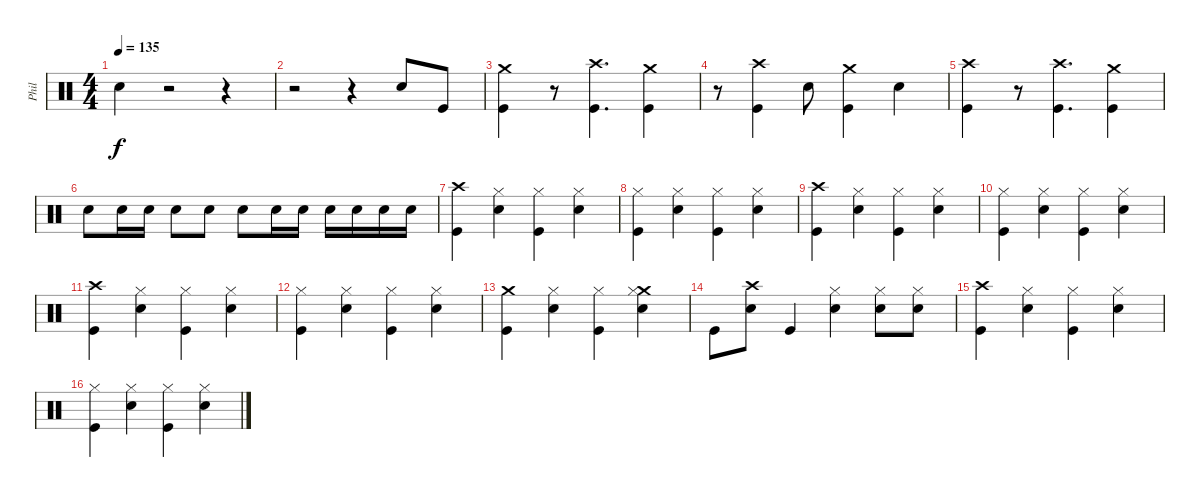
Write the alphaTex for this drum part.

\track ("Phil" "Phil") {instrument percussion}
\staff {score}
\articulation defaults
\ts (4 4)
\tempo 135
\clef neutral
\ks c "Snare (hit) 2".4{dy f}
r.2 r.4 |
r.2 r.4 "Snare (hit) 2".8 "Kick (hit)".8 |
("Crash medium (hit)" "Kick (hit)").4 r.8 ("Crash high (hit)" "Kick (hit)").4{d} ("Crash medium (hit)" "Kick (hit)").4 |
r.8 ("Kick (hit)" "Crash high (hit)").4 "Snare (hit) 2".8 ("Crash medium (hit)" "Kick (hit)").4 "Snare (hit) 2".4 |
("Kick (hit)" "Crash high (hit)").4 r.8 ("Crash high (hit)" "Kick (hit)").4{d} ("Crash medium (hit)" "Kick (hit)").4 |
"Snare (hit) 2".8 "Snare (hit) 2".16 "Snare (hit) 2".16 "Snare (hit) 2".8 "Snare (hit) 2".8 "Snare (hit) 2".8 "Snare (hit) 2".16 "Snare (hit) 2".16 "Snare (hit) 2".16 "Snare (hit) 2".16 "Snare (hit) 2".16 "Snare (hit) 2".16 |
("Kick (hit)" "Crash high (hit)").4 ("Hi-Hat (closed)" "Snare (hit) 2").4 ("Hi-Hat (closed)" "Kick (hit)").4 ("Hi-Hat (closed)" "Snare (hit) 2").4 |
("Kick (hit)" "Hi-Hat (closed)").4 ("Snare (hit) 2" "Hi-Hat (closed)").4 ("Kick (hit)" "Hi-Hat (closed)").4 ("Snare (hit) 2" "Hi-Hat (closed)").4 |
("Kick (hit)" "Crash high (hit)").4 ("Snare (hit) 2" "Hi-Hat (closed)").4 ("Kick (hit)" "Hi-Hat (closed)").4 ("Snare (hit) 2" "Hi-Hat (closed)").4 |
("Kick (hit)" "Hi-Hat (closed)").4 ("Snare (hit) 2" "Hi-Hat (closed)").4 ("Kick (hit)" "Hi-Hat (closed)").4 ("Snare (hit) 2" "Hi-Hat (closed)").4 |
("Kick (hit)" "Crash high (hit)").4 ("Snare (hit) 2" "Hi-Hat (closed)").4 ("Kick (hit)" "Hi-Hat (closed)").4 ("Snare (hit) 2" "Hi-Hat (closed)").4 |
("Kick (hit)" "Hi-Hat (closed)").4 ("Snare (hit) 2" "Hi-Hat (closed)").4 ("Kick (hit)" "Hi-Hat (closed)").4 ("Snare (hit) 2" "Hi-Hat (closed)").4 |
("Crash medium (hit)" "Kick (hit)").4 ("Hi-Hat (closed)" "Snare (hit) 2").4 ("Kick (hit)" "Hi-Hat (closed)").4 ("Crash medium (hit)" "Snare (hit) 2" "Hi-Hat (closed)").4 |
"Kick (hit)".8 ("Snare (hit) 2" "Crash high (hit)").8 "Kick (hit)".4 ("Snare (hit) 2" "Hi-Hat (closed)").4 ("Snare (hit) 2" "Hi-Hat (closed)").8 ("Snare (hit) 2" "Hi-Hat (closed)").8 |
("Crash high (hit)" "Kick (hit)").4 ("Snare (hit) 2" "Hi-Hat (closed)").4 ("Kick (hit)" "Hi-Hat (closed)").4 ("Snare (hit) 2" "Hi-Hat (closed)").4 |
("Hi-Hat (closed)" "Kick (hit)").4 ("Snare (hit) 2" "Hi-Hat (closed)").4 ("Kick (hit)" "Hi-Hat (closed)").4 ("Snare (hit) 2" "Hi-Hat (closed)").4
